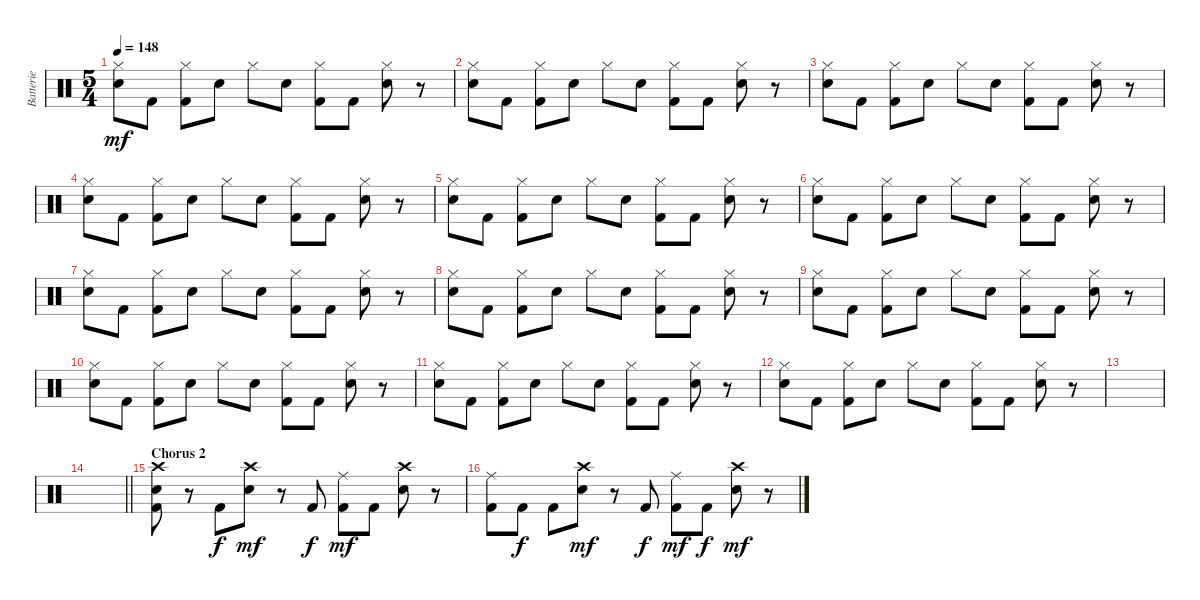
\track ("Batterie" "Batterie") {instrument percussion}
\staff {score}
\articulation defaults
\ts (5 4)
\tempo 148
\clef neutral
\ks c
("Hi-Hat (closed)" "Snare (hit) 2").8{dy mf} "Kick (hit) 2".8 ("Hi-Hat (closed)" "Kick (hit) 2").8 "Snare (hit) 2".8 "Hi-Hat (closed)".8 "Snare (hit) 2".8 ("Hi-Hat (closed)" "Kick (hit) 2").8 "Kick (hit) 2".8 ("Hi-Hat (closed)" "Snare (hit) 2").8 r.8 |
("Hi-Hat (closed)" "Snare (hit) 2").8 "Kick (hit) 2".8 ("Hi-Hat (closed)" "Kick (hit) 2").8 "Snare (hit) 2".8 "Hi-Hat (closed)".8 "Snare (hit) 2".8 ("Hi-Hat (closed)" "Kick (hit) 2").8 "Kick (hit) 2".8 ("Hi-Hat (closed)" "Snare (hit) 2").8 r.8 |
("Hi-Hat (closed)" "Snare (hit) 2").8 "Kick (hit) 2".8 ("Hi-Hat (closed)" "Kick (hit) 2").8 "Snare (hit) 2".8 "Hi-Hat (closed)".8 "Snare (hit) 2".8 ("Hi-Hat (closed)" "Kick (hit) 2").8 "Kick (hit) 2".8 ("Hi-Hat (closed)" "Snare (hit) 2").8 r.8 |
("Hi-Hat (closed)" "Snare (hit) 2").8 "Kick (hit) 2".8 ("Hi-Hat (closed)" "Kick (hit) 2").8 "Snare (hit) 2".8 "Hi-Hat (closed)".8 "Snare (hit) 2".8 ("Hi-Hat (closed)" "Kick (hit) 2").8 "Kick (hit) 2".8 ("Hi-Hat (closed)" "Snare (hit) 2").8 r.8 |
("Hi-Hat (closed)" "Snare (hit) 2").8 "Kick (hit) 2".8 ("Hi-Hat (closed)" "Kick (hit) 2").8 "Snare (hit) 2".8 "Hi-Hat (closed)".8 "Snare (hit) 2".8 ("Hi-Hat (closed)" "Kick (hit) 2").8 "Kick (hit) 2".8 ("Hi-Hat (closed)" "Snare (hit) 2").8 r.8 |
("Hi-Hat (closed)" "Snare (hit) 2").8 "Kick (hit) 2".8 ("Hi-Hat (closed)" "Kick (hit) 2").8 "Snare (hit) 2".8 "Hi-Hat (closed)".8 "Snare (hit) 2".8 ("Hi-Hat (closed)" "Kick (hit) 2").8 "Kick (hit) 2".8 ("Hi-Hat (closed)" "Snare (hit) 2").8 r.8 |
("Hi-Hat (closed)" "Snare (hit) 2").8 "Kick (hit) 2".8 ("Hi-Hat (closed)" "Kick (hit) 2").8 "Snare (hit) 2".8 "Hi-Hat (closed)".8 "Snare (hit) 2".8 ("Hi-Hat (closed)" "Kick (hit) 2").8 "Kick (hit) 2".8 ("Hi-Hat (closed)" "Snare (hit) 2").8 r.8 |
("Hi-Hat (closed)" "Snare (hit) 2").8 "Kick (hit) 2".8 ("Hi-Hat (closed)" "Kick (hit) 2").8 "Snare (hit) 2".8 "Hi-Hat (closed)".8 "Snare (hit) 2".8 ("Hi-Hat (closed)" "Kick (hit) 2").8 "Kick (hit) 2".8 ("Hi-Hat (closed)" "Snare (hit) 2").8 r.8 |
("Hi-Hat (closed)" "Snare (hit) 2").8 "Kick (hit) 2".8 ("Hi-Hat (closed)" "Kick (hit) 2").8 "Snare (hit) 2".8 "Hi-Hat (closed)".8 "Snare (hit) 2".8 ("Hi-Hat (closed)" "Kick (hit) 2").8 "Kick (hit) 2".8 ("Hi-Hat (closed)" "Snare (hit) 2").8 r.8 |
("Hi-Hat (closed)" "Snare (hit) 2").8 "Kick (hit) 2".8 ("Hi-Hat (closed)" "Kick (hit) 2").8 "Snare (hit) 2".8 "Hi-Hat (closed)".8 "Snare (hit) 2".8 ("Hi-Hat (closed)" "Kick (hit) 2").8 "Kick (hit) 2".8 ("Hi-Hat (closed)" "Snare (hit) 2").8 r.8 |
("Hi-Hat (closed)" "Snare (hit) 2").8 "Kick (hit) 2".8 ("Hi-Hat (closed)" "Kick (hit) 2").8 "Snare (hit) 2".8 "Hi-Hat (closed)".8 "Snare (hit) 2".8 ("Hi-Hat (closed)" "Kick (hit) 2").8 "Kick (hit) 2".8 ("Hi-Hat (closed)" "Snare (hit) 2").8 r.8 |
("Hi-Hat (closed)" "Snare (hit) 2").8 "Kick (hit) 2".8 ("Hi-Hat (closed)" "Kick (hit) 2").8 "Snare (hit) 2".8 "Hi-Hat (closed)".8 "Snare (hit) 2".8 ("Hi-Hat (closed)" "Kick (hit) 2").8 "Kick (hit) 2".8 ("Hi-Hat (closed)" "Snare (hit) 2").8 r.8 |
|
\barLineRight lightlight
|
\section ("" "Chorus 2")
("Crash high (hit)" "Snare (hit) 2" "Kick (hit) 2").8 r.8 "Kick (hit) 2".8{dy f} ("Crash high (hit)" "Snare (hit) 2").8{dy mf} r.8 "Kick (hit) 2".8{dy f} ("Ride (middle)" "Kick (hit) 2").8{dy mf} "Kick (hit) 2".8 ("Crash high (hit)" "Snare (hit) 2").8 r.8 |
("Ride (middle)" "Kick (hit) 2").8 "Kick (hit) 2".8{dy f} "Kick (hit) 2".8 ("Crash high (hit)" "Snare (hit) 2").8{dy mf} r.8 "Kick (hit) 2".8{dy f} ("Ride (middle)" "Kick (hit) 2").8{dy mf} "Kick (hit) 2".8{dy f} ("Crash high (hit)" "Snare (hit) 2").8{dy mf} r.8
